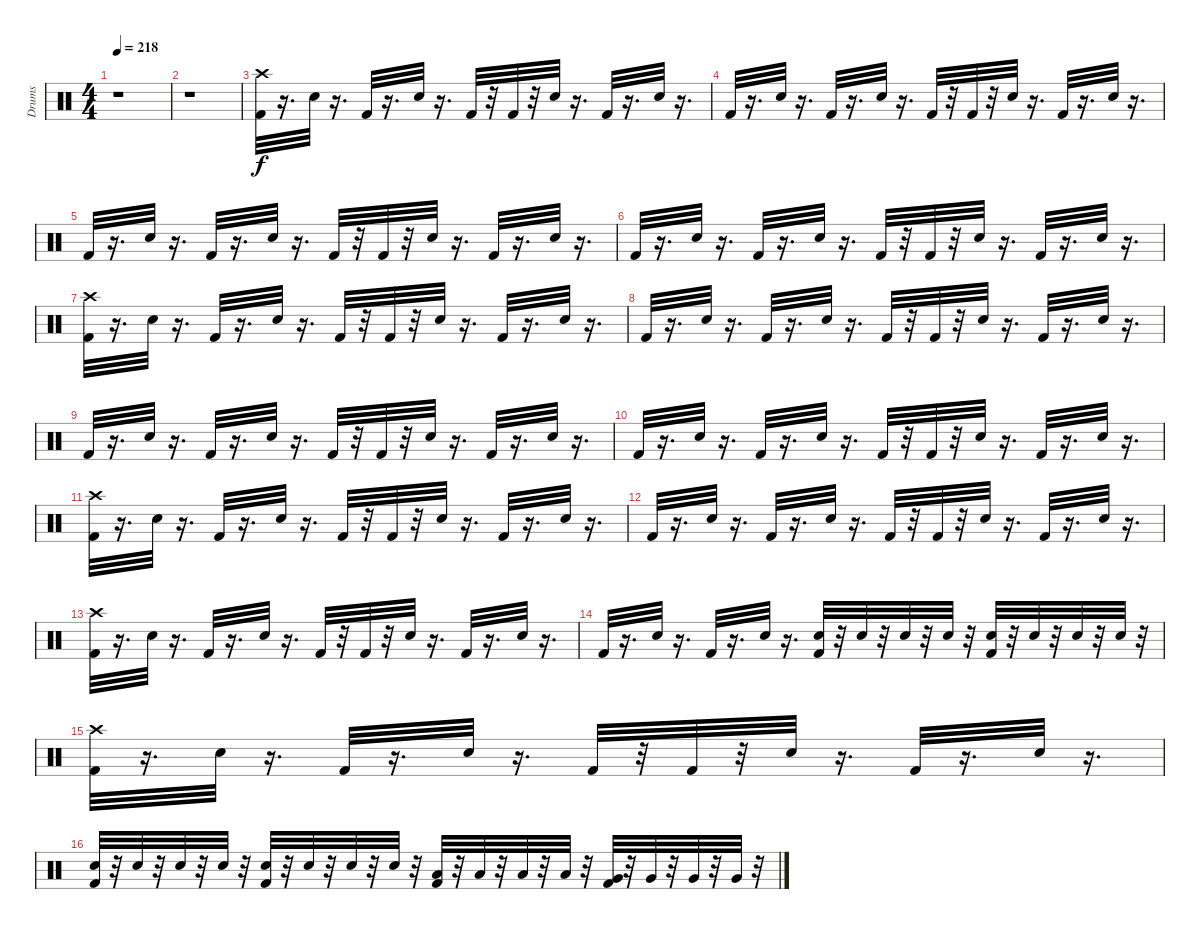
\track ("Drums" "Drums") {instrument percussion}
\staff {score}
\articulation defaults
\ts (4 4)
\tempo 218
\clef neutral
\ks c
r.1{dy f} |
r.1 |
("Kick (hit) 2" "Crash high (hit)").32 r.16{d} "Electric Snare (hit)".32 r.16{d} "Kick (hit) 2".32 r.16{d} "Electric Snare (hit)".32 r.16{d} "Kick (hit) 2".32 r.32 "Kick (hit) 2".32 r.32 "Electric Snare (hit)".32 r.16{d} "Kick (hit) 2".32 r.16{d} "Electric Snare (hit)".32 r.16{d} |
"Kick (hit) 2".32 r.16{d} "Electric Snare (hit)".32 r.16{d} "Kick (hit) 2".32 r.16{d} "Electric Snare (hit)".32 r.16{d} "Kick (hit) 2".32 r.32 "Kick (hit) 2".32 r.32 "Electric Snare (hit)".32 r.16{d} "Kick (hit) 2".32 r.16{d} "Electric Snare (hit)".32 r.16{d} |
"Kick (hit) 2".32 r.16{d} "Electric Snare (hit)".32 r.16{d} "Kick (hit) 2".32 r.16{d} "Electric Snare (hit)".32 r.16{d} "Kick (hit) 2".32 r.32 "Kick (hit) 2".32 r.32 "Electric Snare (hit)".32 r.16{d} "Kick (hit) 2".32 r.16{d} "Electric Snare (hit)".32 r.16{d} |
"Kick (hit) 2".32 r.16{d} "Electric Snare (hit)".32 r.16{d} "Kick (hit) 2".32 r.16{d} "Electric Snare (hit)".32 r.16{d} "Kick (hit) 2".32 r.32 "Kick (hit) 2".32 r.32 "Electric Snare (hit)".32 r.16{d} "Kick (hit) 2".32 r.16{d} "Electric Snare (hit)".32 r.16{d} |
("Kick (hit) 2" "Crash high (hit)").32 r.16{d} "Electric Snare (hit)".32 r.16{d} "Kick (hit) 2".32 r.16{d} "Electric Snare (hit)".32 r.16{d} "Kick (hit) 2".32 r.32 "Kick (hit) 2".32 r.32 "Electric Snare (hit)".32 r.16{d} "Kick (hit) 2".32 r.16{d} "Electric Snare (hit)".32 r.16{d} |
"Kick (hit) 2".32 r.16{d} "Electric Snare (hit)".32 r.16{d} "Kick (hit) 2".32 r.16{d} "Electric Snare (hit)".32 r.16{d} "Kick (hit) 2".32 r.32 "Kick (hit) 2".32 r.32 "Electric Snare (hit)".32 r.16{d} "Kick (hit) 2".32 r.16{d} "Electric Snare (hit)".32 r.16{d} |
"Kick (hit) 2".32 r.16{d} "Electric Snare (hit)".32 r.16{d} "Kick (hit) 2".32 r.16{d} "Electric Snare (hit)".32 r.16{d} "Kick (hit) 2".32 r.32 "Kick (hit) 2".32 r.32 "Electric Snare (hit)".32 r.16{d} "Kick (hit) 2".32 r.16{d} "Electric Snare (hit)".32 r.16{d} |
"Kick (hit) 2".32 r.16{d} "Electric Snare (hit)".32 r.16{d} "Kick (hit) 2".32 r.16{d} "Electric Snare (hit)".32 r.16{d} "Kick (hit) 2".32 r.32 "Kick (hit) 2".32 r.32 "Electric Snare (hit)".32 r.16{d} "Kick (hit) 2".32 r.16{d} "Electric Snare (hit)".32 r.16{d} |
("Kick (hit) 2" "Crash high (hit)").32 r.16{d} "Electric Snare (hit)".32 r.16{d} "Kick (hit) 2".32 r.16{d} "Electric Snare (hit)".32 r.16{d} "Kick (hit) 2".32 r.32 "Kick (hit) 2".32 r.32 "Electric Snare (hit)".32 r.16{d} "Kick (hit) 2".32 r.16{d} "Electric Snare (hit)".32 r.16{d} |
"Kick (hit) 2".32 r.16{d} "Electric Snare (hit)".32 r.16{d} "Kick (hit) 2".32 r.16{d} "Electric Snare (hit)".32 r.16{d} "Kick (hit) 2".32 r.32 "Kick (hit) 2".32 r.32 "Electric Snare (hit)".32 r.16{d} "Kick (hit) 2".32 r.16{d} "Electric Snare (hit)".32 r.16{d} |
("Kick (hit) 2" "Crash high (hit)").32 r.16{d} "Electric Snare (hit)".32 r.16{d} "Kick (hit) 2".32 r.16{d} "Electric Snare (hit)".32 r.16{d} "Kick (hit) 2".32 r.32 "Kick (hit) 2".32 r.32 "Electric Snare (hit)".32 r.16{d} "Kick (hit) 2".32 r.16{d} "Electric Snare (hit)".32 r.16{d} |
"Kick (hit) 2".32 r.16{d} "Electric Snare (hit)".32 r.16{d} "Kick (hit) 2".32 r.16{d} "Electric Snare (hit)".32 r.16{d} ("Kick (hit) 2" "Electric Snare (hit)").32 r.32 "Electric Snare (hit)".32 r.32 "Electric Snare (hit)".32 r.32 "Electric Snare (hit)".32 r.32 ("Kick (hit) 2" "Electric Snare (hit)").32 r.32 "Electric Snare (hit)".32 r.32 "Electric Snare (hit)".32 r.32 "Electric Snare (hit)".32 r.32 |
("Kick (hit) 2" "Crash high (hit)").32 r.16{d} "Electric Snare (hit)".32 r.16{d} "Kick (hit) 2".32 r.16{d} "Electric Snare (hit)".32 r.16{d} "Kick (hit) 2".32 r.32 "Kick (hit) 2".32 r.32 "Electric Snare (hit)".32 r.16{d} "Kick (hit) 2".32 r.16{d} "Electric Snare (hit)".32 r.16{d} |
("Kick (hit) 2" "Electric Snare (hit)").32 r.32 "Electric Snare (hit)".32 r.32 "Electric Snare (hit)".32 r.32 "Electric Snare (hit)".32 r.32 ("Kick (hit) 2" "Electric Snare (hit)").32 r.32 "Electric Snare (hit)".32 r.32 "Electric Snare (hit)".32 r.32 "Electric Snare (hit)".32 r.32 ("Kick (hit) 2" "Low Tom (hit)").32 r.32 "Low Tom (hit)".32 r.32 "Low Tom (hit)".32 r.32 "Low Tom (hit)".32 r.32 ("Kick (hit) 2" "Very Low Tom (hit)").32 r.32 "Very Low Tom (hit)".32 r.32 "Very Low Tom (hit)".32 r.32 "Very Low Tom (hit)".32 r.32
